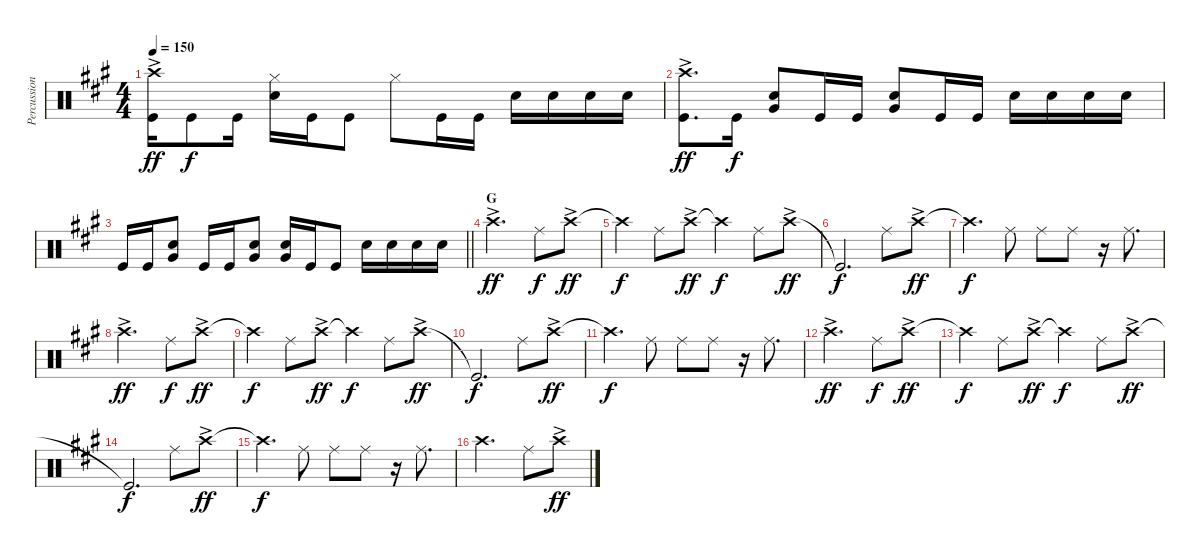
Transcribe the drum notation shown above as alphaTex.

\track ("Percussion" "Percussion") {instrument percussion}
\staff {score}
\articulation defaults
\ts (4 4)
\tempo 150
\clef neutral
\ks a
("Crash high (hit)"{ac} "Kick (hit)").16{dy ff} "Kick (hit)".8{dy f} "Kick (hit)".16 ("Hi-Hat (closed)" "Snare (hit) 2").16 "Kick (hit)".16 "Kick (hit)".8 "Hi-Hat (closed)".8 "Kick (hit)".16 "Kick (hit)".16 "Snare (hit) 2".16 "Snare (hit) 2".16 "Snare (hit) 2".16 "Snare (hit) 2".16 |
("Crash high (hit)"{ac} "Kick (hit)").8{d dy ff} "Kick (hit)".16{dy f} ("Snare (hit) 2" "Very Low Tom (hit)").8 "Kick (hit)".16 "Kick (hit)".16 ("Snare (hit) 2" "Very Low Tom (hit)").8 "Kick (hit)".16 "Kick (hit)".16 "Snare (hit) 2".16 "Snare (hit) 2".16 "Snare (hit) 2".16 "Snare (hit) 2".16 |
\barLineRight lightlight "Kick (hit)".16 "Kick (hit)".16
("Snare (hit) 2" "Very Low Tom (hit)").8 "Kick (hit)".16 "Kick (hit)".16 ("Snare (hit) 2" "Very Low Tom (hit)").8 ("Snare (hit) 2" "Very Low Tom (hit)").16 "Kick (hit)".16 "Kick (hit)".8 "Snare (hit) 2".16 "Snare (hit) 2".16 "Snare (hit) 2".16 "Snare (hit) 2".16 |
\section ("" "G")
"Crash high (hit)"{ac}.2{d dy ff} "Ride (middle)".8{dy f} "Crash high (hit)"{ac}.8{dy ff} |
"Crash high (hit)"{t}.4{dy f} "Ride (middle)".8 "Crash high (hit)"{ac}.8{dy ff} "Crash high (hit)"{t}.4{dy f} "Ride (middle)".8 "Crash high (hit)"{ac}.8{dy ff} |
"Kick (hit)"{t}.2{d dy f} "Ride (middle)".8 "Crash high (hit)"{ac}.8{dy ff} |
"Crash high (hit)"{t}.4{d dy f} "Ride (middle)".8 "Ride (middle)".8 "Ride (middle)".8 r.16 "Ride (middle)".8{d} |
"Crash high (hit)"{ac}.2{d dy ff} "Ride (middle)".8{dy f} "Crash high (hit)"{ac}.8{dy ff} |
"Crash high (hit)"{t}.4{dy f} "Ride (middle)".8 "Crash high (hit)"{ac}.8{dy ff} "Crash high (hit)"{t}.4{dy f} "Ride (middle)".8 "Crash high (hit)"{ac}.8{dy ff} |
"Kick (hit)"{t}.2{d dy f} "Ride (middle)".8 "Crash high (hit)"{ac}.8{dy ff} |
"Crash high (hit)"{t}.4{d dy f} "Ride (middle)".8 "Ride (middle)".8 "Ride (middle)".8 r.16 "Ride (middle)".8{d} |
"Crash high (hit)"{ac}.2{d dy ff} "Ride (middle)".8{dy f} "Crash high (hit)"{ac}.8{dy ff} |
"Crash high (hit)"{t}.4{dy f} "Ride (middle)".8 "Crash high (hit)"{ac}.8{dy ff} "Crash high (hit)"{t}.4{dy f} "Ride (middle)".8 "Crash high (hit)"{ac}.8{dy ff} |
"Kick (hit)"{t}.2{d dy f} "Ride (middle)".8 "Crash high (hit)"{ac}.8{dy ff} |
"Crash high (hit)"{t}.4{d dy f} "Ride (middle)".8 "Ride (middle)".8 "Ride (middle)".8 r.16 "Ride (middle)".8{d} |
"Crash high (hit)".2{d} "Ride (middle)".8 "Crash high (hit)"{ac}.8{dy ff}
